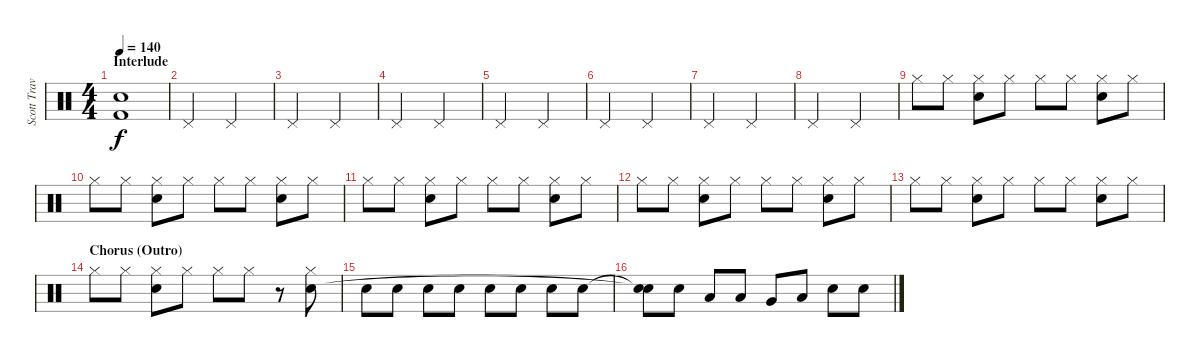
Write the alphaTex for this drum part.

\track ("Scott Travis" "Scott Trav") {instrument percussion}
\staff {score}
\articulation defaults
\ts (4 4)
\section ("" "Interlude")
\tempo 140
\clef neutral
\ks c
("Snare (hit)"{t} "Kick (hit) 2"{t}).1{dy f} |
"Pedal Hi-Hat (hit)".2 "Pedal Hi-Hat (hit)".2 |
"Pedal Hi-Hat (hit)".2 "Pedal Hi-Hat (hit)".2 |
"Pedal Hi-Hat (hit)".2 "Pedal Hi-Hat (hit)".2 |
"Pedal Hi-Hat (hit)".2 "Pedal Hi-Hat (hit)".2 |
"Pedal Hi-Hat (hit)".2 "Pedal Hi-Hat (hit)".2 |
"Pedal Hi-Hat (hit)".2 "Pedal Hi-Hat (hit)".2 |
"Pedal Hi-Hat (hit)".2 "Pedal Hi-Hat (hit)".2 |
"Hi-Hat (closed)".8 "Hi-Hat (closed)".8 ("Hi-Hat (closed)" "Snare (hit) 2").8 "Hi-Hat (closed)".8 "Hi-Hat (closed)".8 "Hi-Hat (closed)".8 ("Hi-Hat (closed)" "Snare (hit) 2").8 "Hi-Hat (closed)".8 |
"Hi-Hat (closed)".8 "Hi-Hat (closed)".8 ("Hi-Hat (closed)" "Snare (hit) 2").8 "Hi-Hat (closed)".8 "Hi-Hat (closed)".8 "Hi-Hat (closed)".8 ("Hi-Hat (closed)" "Snare (hit) 2").8 "Hi-Hat (closed)".8 |
"Hi-Hat (closed)".8 "Hi-Hat (closed)".8 ("Hi-Hat (closed)" "Snare (hit) 2").8 "Hi-Hat (closed)".8 "Hi-Hat (closed)".8 "Hi-Hat (closed)".8 ("Hi-Hat (closed)" "Snare (hit) 2").8 "Hi-Hat (closed)".8 |
"Hi-Hat (closed)".8 "Hi-Hat (closed)".8 ("Hi-Hat (closed)" "Snare (hit) 2").8 "Hi-Hat (closed)".8 "Hi-Hat (closed)".8 "Hi-Hat (closed)".8 ("Hi-Hat (closed)" "Snare (hit) 2").8 "Hi-Hat (closed)".8 |
"Hi-Hat (closed)".8 "Hi-Hat (closed)".8 ("Hi-Hat (closed)" "Snare (hit) 2").8 "Hi-Hat (closed)".8 "Hi-Hat (closed)".8 "Hi-Hat (closed)".8 ("Hi-Hat (closed)" "Snare (hit) 2").8 "Hi-Hat (closed)".8 |
\section ("" "Chorus (Outro)")
"Hi-Hat (closed)".8 "Hi-Hat (closed)".8 ("Hi-Hat (closed)" "Snare (hit) 2").8 "Hi-Hat (closed)".8 "Hi-Hat (closed)".8 "Hi-Hat (closed)".8 r.8 ("Hi-Hat (closed)" "Snare (hit) 2").8 |
"Snare (hit) 2".8 "Snare (hit) 2".8 "Snare (hit) 2".8 "Snare (hit) 2".8 "Snare (hit) 2".8 "Snare (hit) 2".8 "Snare (hit) 2".8 "Snare (hit) 2".8 |
("Snare (hit)"{t} "Snare (hit)"{t}).8 "Snare (hit) 2".8 "Low Tom (hit)".8 "Low Tom (hit)".8 "Very Low Tom (hit)".8 "Low Floor Tom (hit)".8 "Snare (hit) 2".8 "Snare (hit) 2".8
